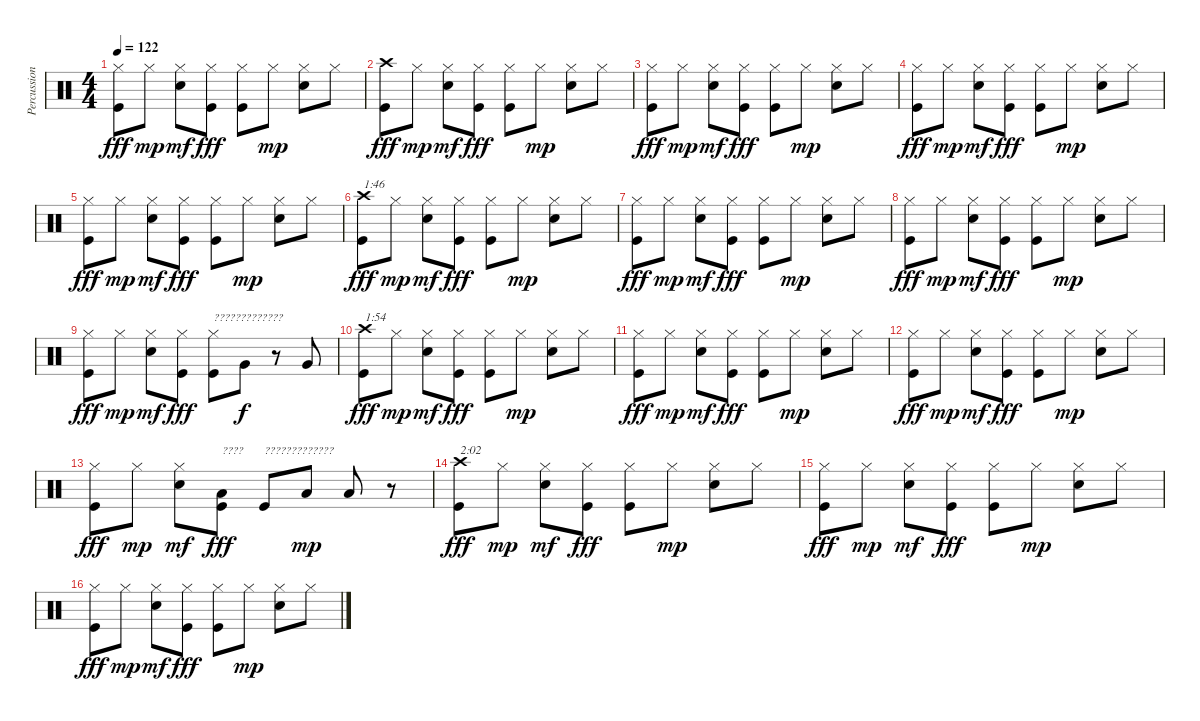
\track ("Percussion" "Percussion") {instrument percussion}
\staff {score}
\articulation defaults
\ts (4 4)
\tempo 122
\clef neutral
\ks c
("Hi-Hat (closed)" "Kick (hit)").8{dy fff} "Hi-Hat (closed)".8{dy mp} ("Hi-Hat (closed)" "Snare (hit) 2").8{dy mf} ("Hi-Hat (closed)" "Kick (hit)").8{dy fff} ("Hi-Hat (closed)" "Kick (hit)").8 "Hi-Hat (closed)".8{dy mp} ("Hi-Hat (closed)" "Snare (hit) 2").8 "Hi-Hat (closed)".8 |
("Crash high (hit)" "Kick (hit)").8{dy fff} "Hi-Hat (closed)".8{dy mp} ("Hi-Hat (closed)" "Snare (hit) 2").8{dy mf} ("Hi-Hat (closed)" "Kick (hit)").8{dy fff} ("Hi-Hat (closed)" "Kick (hit)").8 "Hi-Hat (closed)".8{dy mp} ("Hi-Hat (closed)" "Snare (hit) 2").8 "Hi-Hat (closed)".8 |
("Hi-Hat (closed)" "Kick (hit)").8{dy fff} "Hi-Hat (closed)".8{dy mp} ("Hi-Hat (closed)" "Snare (hit) 2").8{dy mf} ("Hi-Hat (closed)" "Kick (hit)").8{dy fff} ("Hi-Hat (closed)" "Kick (hit)").8 "Hi-Hat (closed)".8{dy mp} ("Hi-Hat (closed)" "Snare (hit) 2").8 "Hi-Hat (closed)".8 |
("Hi-Hat (closed)" "Kick (hit)").8{dy fff} "Hi-Hat (closed)".8{dy mp} ("Hi-Hat (closed)" "Snare (hit) 2").8{dy mf} ("Hi-Hat (closed)" "Kick (hit)").8{dy fff} ("Hi-Hat (closed)" "Kick (hit)").8 "Hi-Hat (closed)".8{dy mp} ("Hi-Hat (closed)" "Snare (hit) 2").8 "Hi-Hat (closed)".8 |
("Hi-Hat (closed)" "Kick (hit)").8{dy fff} "Hi-Hat (closed)".8{dy mp} ("Hi-Hat (closed)" "Snare (hit) 2").8{dy mf} ("Hi-Hat (closed)" "Kick (hit)").8{dy fff} ("Hi-Hat (closed)" "Kick (hit)").8 "Hi-Hat (closed)".8{dy mp} ("Hi-Hat (closed)" "Snare (hit) 2").8 "Hi-Hat (closed)".8 |
("Crash high (hit)" "Kick (hit)").8{txt "1:46" dy fff} "Hi-Hat (closed)".8{dy mp} ("Hi-Hat (closed)" "Snare (hit) 2").8{dy mf} ("Hi-Hat (closed)" "Kick (hit)").8{dy fff} ("Hi-Hat (closed)" "Kick (hit)").8 "Hi-Hat (closed)".8{dy mp} ("Hi-Hat (closed)" "Snare (hit) 2").8 "Hi-Hat (closed)".8 |
("Hi-Hat (closed)" "Kick (hit)").8{dy fff} "Hi-Hat (closed)".8{dy mp} ("Hi-Hat (closed)" "Snare (hit) 2").8{dy mf} ("Hi-Hat (closed)" "Kick (hit)").8{dy fff} ("Hi-Hat (closed)" "Kick (hit)").8 "Hi-Hat (closed)".8{dy mp} ("Hi-Hat (closed)" "Snare (hit) 2").8 "Hi-Hat (closed)".8 |
("Hi-Hat (closed)" "Kick (hit)").8{dy fff} "Hi-Hat (closed)".8{dy mp} ("Hi-Hat (closed)" "Snare (hit) 2").8{dy mf} ("Hi-Hat (closed)" "Kick (hit)").8{dy fff} ("Hi-Hat (closed)" "Kick (hit)").8 "Hi-Hat (closed)".8{dy mp} ("Hi-Hat (closed)" "Snare (hit) 2").8 "Hi-Hat (closed)".8 |
("Hi-Hat (closed)" "Kick (hit)").8{dy fff} "Hi-Hat (closed)".8{dy mp} ("Hi-Hat (closed)" "Snare (hit) 2").8{dy mf} ("Hi-Hat (closed)" "Kick (hit)").8{dy fff} ("Hi-Hat (closed)" "Kick (hit)").8{txt "?????????????"} "Very Low Tom (hit)".8{dy f} r.8 "Very Low Tom (hit)".8 |
("Crash high (hit)" "Kick (hit)").8{txt "1:54" dy fff} "Hi-Hat (closed)".8{dy mp} ("Hi-Hat (closed)" "Snare (hit) 2").8{dy mf} ("Hi-Hat (closed)" "Kick (hit)").8{dy fff} ("Hi-Hat (closed)" "Kick (hit)").8 "Hi-Hat (closed)".8{dy mp} ("Hi-Hat (closed)" "Snare (hit) 2").8 "Hi-Hat (closed)".8 |
("Hi-Hat (closed)" "Kick (hit)").8{dy fff} "Hi-Hat (closed)".8{dy mp} ("Hi-Hat (closed)" "Snare (hit) 2").8{dy mf} ("Hi-Hat (closed)" "Kick (hit)").8{dy fff} ("Hi-Hat (closed)" "Kick (hit)").8 "Hi-Hat (closed)".8{dy mp} ("Hi-Hat (closed)" "Snare (hit) 2").8 "Hi-Hat (closed)".8 |
("Hi-Hat (closed)" "Kick (hit)").8{dy fff} "Hi-Hat (closed)".8{dy mp} ("Hi-Hat (closed)" "Snare (hit) 2").8{dy mf} ("Hi-Hat (closed)" "Kick (hit)").8{dy fff} ("Hi-Hat (closed)" "Kick (hit)").8 "Hi-Hat (closed)".8{dy mp} ("Hi-Hat (closed)" "Snare (hit) 2").8 "Hi-Hat (closed)".8 |
("Hi-Hat (closed)" "Kick (hit)").8{dy fff} "Hi-Hat (closed)".8{dy mp} ("Hi-Hat (closed)" "Snare (hit) 2").8{dy mf} ("Low Floor Tom (hit)" "Kick (hit)").8{txt "????" dy fff} "Kick (hit)".8{txt "?????????????"} "Low Floor Tom (hit)".8{dy mp} "Low Floor Tom (hit)".8 r.8 |
("Crash high (hit)" "Kick (hit)").8{txt "2:02" dy fff} "Hi-Hat (closed)".8{dy mp} ("Hi-Hat (closed)" "Snare (hit) 2").8{dy mf} ("Hi-Hat (closed)" "Kick (hit)").8{dy fff} ("Hi-Hat (closed)" "Kick (hit)").8 "Hi-Hat (closed)".8{dy mp} ("Hi-Hat (closed)" "Snare (hit) 2").8 "Hi-Hat (closed)".8 |
("Hi-Hat (closed)" "Kick (hit)").8{dy fff} "Hi-Hat (closed)".8{dy mp} ("Hi-Hat (closed)" "Snare (hit) 2").8{dy mf} ("Hi-Hat (closed)" "Kick (hit)").8{dy fff} ("Hi-Hat (closed)" "Kick (hit)").8 "Hi-Hat (closed)".8{dy mp} ("Hi-Hat (closed)" "Snare (hit) 2").8 "Hi-Hat (closed)".8 |
("Hi-Hat (closed)" "Kick (hit)").8{dy fff} "Hi-Hat (closed)".8{dy mp} ("Hi-Hat (closed)" "Snare (hit) 2").8{dy mf} ("Hi-Hat (closed)" "Kick (hit)").8{dy fff} ("Hi-Hat (closed)" "Kick (hit)").8 "Hi-Hat (closed)".8{dy mp} ("Hi-Hat (closed)" "Snare (hit) 2").8 "Hi-Hat (closed)".8
